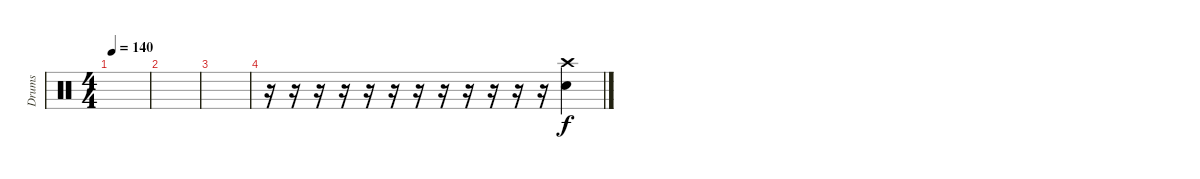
\track ("Drums" "Drums") {instrument percussion}
\staff {score}
\articulation defaults
\ts (4 4)
\tempo 140
\clef neutral
\ks c
|
|
|
r.16 r.16 r.16 r.16 r.16 r.16 r.16 r.16 r.16 r.16 r.16 r.16 ("Snare (hit) 2" "Crash high (hit)").4
